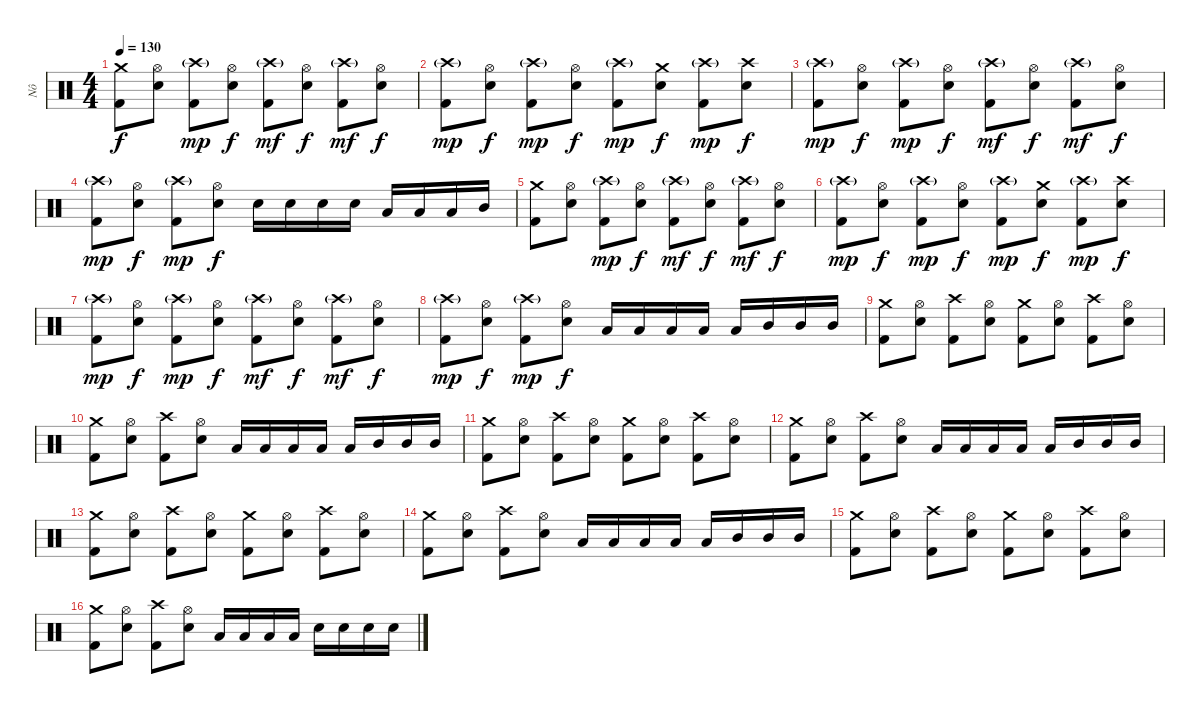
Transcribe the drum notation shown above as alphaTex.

\track ("Nô" "Nô") {instrument percussion}
\staff {score}
\articulation defaults
\ts (4 4)
\tempo 130
\clef neutral
\ks c
("Crash medium (hit)" "Kick (hit) 2").8{dy f} ("Hi-Hat (open)" "Electric Snare (hit)").8 ("Crash high (hit)"{g} "Kick (hit) 2").8{dy mp} ("Hi-Hat (open)" "Electric Snare (hit)").8{dy f} ("Crash high (hit)"{g} "Kick (hit) 2").8{dy mf} ("Hi-Hat (open)" "Electric Snare (hit)").8{dy f} ("Crash high (hit)"{g} "Kick (hit) 2").8{dy mf} ("Hi-Hat (open)" "Electric Snare (hit)").8{dy f} |
("Crash high (hit)"{g} "Kick (hit) 2").8{dy mp} ("Hi-Hat (open)" "Electric Snare (hit)").8{dy f} ("Crash high (hit)"{g} "Kick (hit) 2").8{dy mp} ("Hi-Hat (open)" "Electric Snare (hit)").8{dy f} ("Crash high (hit)"{g} "Kick (hit) 2").8{dy mp} ("Crash medium (hit)" "Electric Snare (hit)").8{dy f} ("Crash high (hit)"{g} "Kick (hit) 2").8{dy mp} ("Crash high (hit)" "Electric Snare (hit)").8{dy f} |
("Crash high (hit)"{g} "Kick (hit) 2").8{dy mp} ("Hi-Hat (open)" "Electric Snare (hit)").8{dy f} ("Crash high (hit)"{g} "Kick (hit) 2").8{dy mp} ("Hi-Hat (open)" "Electric Snare (hit)").8{dy f} ("Crash high (hit)"{g} "Kick (hit) 2").8{dy mf} ("Hi-Hat (open)" "Electric Snare (hit)").8{dy f} ("Crash high (hit)"{g} "Kick (hit) 2").8{dy mf} ("Hi-Hat (open)" "Electric Snare (hit)").8{dy f} |
("Crash high (hit)"{g} "Kick (hit) 2").8{dy mp} ("Hi-Hat (open)" "Electric Snare (hit)").8{dy f} ("Crash high (hit)"{g} "Kick (hit) 2").8{dy mp} ("Hi-Hat (open)" "Electric Snare (hit)").8{dy f} "Electric Snare (hit)".16 "Electric Snare (hit)".16 "Electric Snare (hit)".16 "Electric Snare (hit)".16 "Low Tom (hit)".16 "Low Tom (hit)".16 "Low Tom (hit)".16 "Mid Tom (hit)".16 |
("Crash medium (hit)" "Kick (hit) 2").8 ("Hi-Hat (open)" "Electric Snare (hit)").8 ("Crash high (hit)"{g} "Kick (hit) 2").8{dy mp} ("Hi-Hat (open)" "Electric Snare (hit)").8{dy f} ("Crash high (hit)"{g} "Kick (hit) 2").8{dy mf} ("Hi-Hat (open)" "Electric Snare (hit)").8{dy f} ("Crash high (hit)"{g} "Kick (hit) 2").8{dy mf} ("Hi-Hat (open)" "Electric Snare (hit)").8{dy f} |
("Crash high (hit)"{g} "Kick (hit) 2").8{dy mp} ("Hi-Hat (open)" "Electric Snare (hit)").8{dy f} ("Crash high (hit)"{g} "Kick (hit) 2").8{dy mp} ("Hi-Hat (open)" "Electric Snare (hit)").8{dy f} ("Crash high (hit)"{g} "Kick (hit) 2").8{dy mp} ("Crash medium (hit)" "Electric Snare (hit)").8{dy f} ("Crash high (hit)"{g} "Kick (hit) 2").8{dy mp} ("Crash high (hit)" "Electric Snare (hit)").8{dy f} |
("Crash high (hit)"{g} "Kick (hit) 2").8{dy mp} ("Hi-Hat (open)" "Electric Snare (hit)").8{dy f} ("Crash high (hit)"{g} "Kick (hit) 2").8{dy mp} ("Hi-Hat (open)" "Electric Snare (hit)").8{dy f} ("Crash high (hit)"{g} "Kick (hit) 2").8{dy mf} ("Hi-Hat (open)" "Electric Snare (hit)").8{dy f} ("Crash high (hit)"{g} "Kick (hit) 2").8{dy mf} ("Hi-Hat (open)" "Electric Snare (hit)").8{dy f} |
("Crash high (hit)"{g} "Kick (hit) 2").8{dy mp} ("Hi-Hat (open)" "Electric Snare (hit)").8{dy f} ("Crash high (hit)"{g} "Kick (hit) 2").8{dy mp} ("Hi-Hat (open)" "Electric Snare (hit)").8{dy f} "Low Tom (hit)".16 "Low Tom (hit)".16 "Low Tom (hit)".16 "Low Tom (hit)".16 "Low Tom (hit)".16 "Mid Tom (hit)".16 "Mid Tom (hit)".16 "Mid Tom (hit)".16 |
("Crash medium (hit)" "Kick (hit) 2").8 ("Hi-Hat (open)" "Electric Snare (hit)").8 ("Crash high (hit)" "Kick (hit) 2").8 ("Hi-Hat (open)" "Electric Snare (hit)").8 ("Crash medium (hit)" "Kick (hit) 2").8 ("Hi-Hat (open)" "Electric Snare (hit)").8 ("Crash high (hit)" "Kick (hit) 2").8 ("Hi-Hat (open)" "Electric Snare (hit)").8 |
("Crash medium (hit)" "Kick (hit) 2").8 ("Hi-Hat (open)" "Electric Snare (hit)").8 ("Crash high (hit)" "Kick (hit) 2").8 ("Hi-Hat (open)" "Electric Snare (hit)").8 "Low Tom (hit)".16 "Low Tom (hit)".16 "Low Tom (hit)".16 "Low Tom (hit)".16 "Low Tom (hit)".16 "Mid Tom (hit)".16 "Mid Tom (hit)".16 "Mid Tom (hit)".16 |
("Crash medium (hit)" "Kick (hit) 2").8 ("Hi-Hat (open)" "Electric Snare (hit)").8 ("Crash high (hit)" "Kick (hit) 2").8 ("Hi-Hat (open)" "Electric Snare (hit)").8 ("Crash medium (hit)" "Kick (hit) 2").8 ("Hi-Hat (open)" "Electric Snare (hit)").8 ("Crash high (hit)" "Kick (hit) 2").8 ("Hi-Hat (open)" "Electric Snare (hit)").8 |
("Crash medium (hit)" "Kick (hit) 2").8 ("Hi-Hat (open)" "Electric Snare (hit)").8 ("Crash high (hit)" "Kick (hit) 2").8 ("Hi-Hat (open)" "Electric Snare (hit)").8 "Low Tom (hit)".16 "Low Tom (hit)".16 "Low Tom (hit)".16 "Low Tom (hit)".16 "Low Tom (hit)".16 "Mid Tom (hit)".16 "Mid Tom (hit)".16 "Mid Tom (hit)".16 |
("Crash medium (hit)" "Kick (hit) 2").8 ("Hi-Hat (open)" "Electric Snare (hit)").8 ("Crash high (hit)" "Kick (hit) 2").8 ("Hi-Hat (open)" "Electric Snare (hit)").8 ("Crash medium (hit)" "Kick (hit) 2").8 ("Hi-Hat (open)" "Electric Snare (hit)").8 ("Crash high (hit)" "Kick (hit) 2").8 ("Hi-Hat (open)" "Electric Snare (hit)").8 |
("Crash medium (hit)" "Kick (hit) 2").8 ("Hi-Hat (open)" "Electric Snare (hit)").8 ("Crash high (hit)" "Kick (hit) 2").8 ("Hi-Hat (open)" "Electric Snare (hit)").8 "Low Tom (hit)".16 "Low Tom (hit)".16 "Low Tom (hit)".16 "Low Tom (hit)".16 "Low Tom (hit)".16 "Mid Tom (hit)".16 "Mid Tom (hit)".16 "Mid Tom (hit)".16 |
("Crash medium (hit)" "Kick (hit) 2").8 ("Hi-Hat (open)" "Electric Snare (hit)").8 ("Crash high (hit)" "Kick (hit) 2").8 ("Hi-Hat (open)" "Electric Snare (hit)").8 ("Crash medium (hit)" "Kick (hit) 2").8 ("Hi-Hat (open)" "Electric Snare (hit)").8 ("Crash high (hit)" "Kick (hit) 2").8 ("Hi-Hat (open)" "Electric Snare (hit)").8 |
("Crash medium (hit)" "Kick (hit) 2").8 ("Hi-Hat (open)" "Electric Snare (hit)").8 ("Crash high (hit)" "Kick (hit) 2").8 ("Hi-Hat (open)" "Electric Snare (hit)").8 "Low Tom (hit)".16 "Low Tom (hit)".16 "Low Tom (hit)".16 "Low Tom (hit)".16 "Electric Snare (hit)".16 "Electric Snare (hit)".16 "Electric Snare (hit)".16 "Electric Snare (hit)".16
